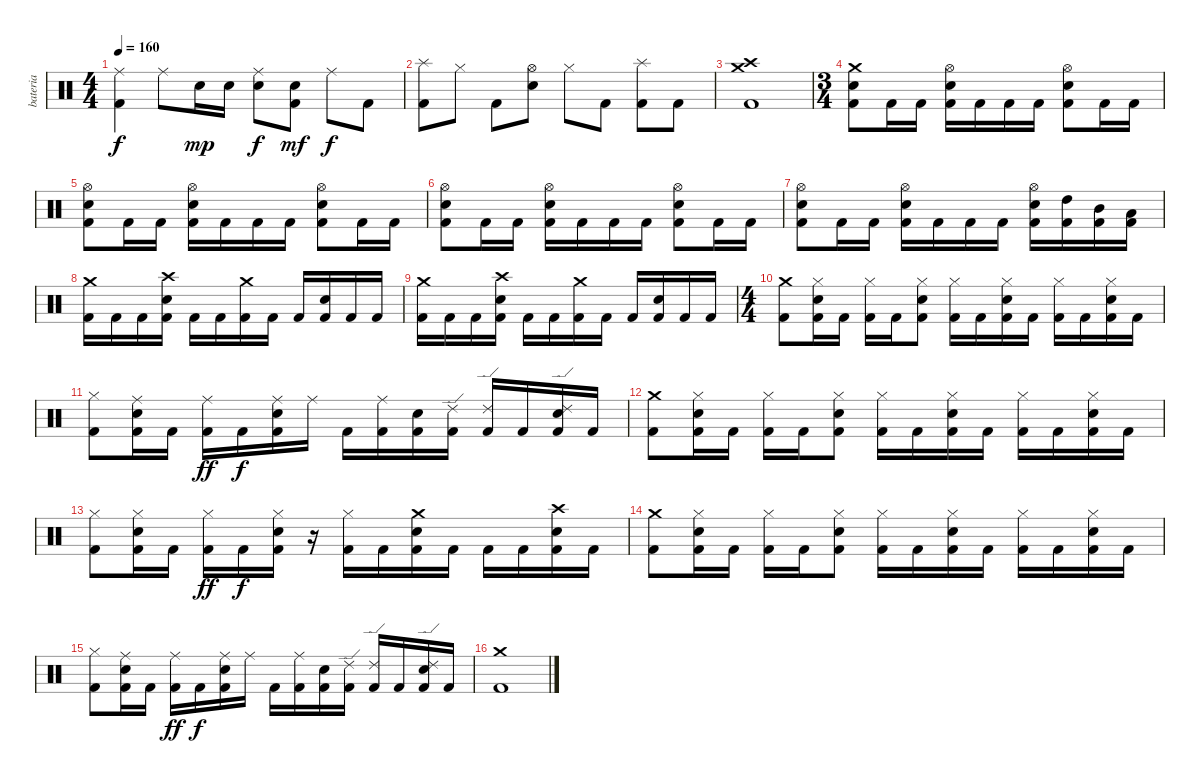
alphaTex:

\track ("bateria" "bateria") {instrument percussion}
\staff {score}
\articulation defaults
\ts (4 4)
\tempo 160
\clef neutral
\ks c
("Ride (middle)" "Kick (hit) 2").4{dy f} "Ride (middle)".8 "Electric Snare (hit)".16{dy mp} "Electric Snare (hit)".16 ("Ride (middle)" "Electric Snare (hit)").8{dy f} ("Electric Snare (hit)" "Kick (hit) 2").8{dy mf} "Ride (middle)".8{dy f} "Kick (hit) 2".8 |
("Splash (hit)" "Kick (hit) 2").8 "Hi-Hat (closed)".8 "Kick (hit) 2".8 ("Hi-Hat (open)" "Electric Snare (hit)").8 "Hi-Hat (closed)".8 "Kick (hit) 2".8 ("Splash (hit)" "Kick (hit) 2").8 "Kick (hit) 2".8 |
("Crash medium (hit)" "Crash high (hit)" "Kick (hit) 2").1 |
\ts (3 4)
("Crash medium (hit)" "Electric Snare (hit)" "Kick (hit) 2").8 "Kick (hit) 2".16 "Kick (hit) 2".16 ("Hi-Hat (open)" "Electric Snare (hit)" "Kick (hit) 2").16 "Kick (hit) 2".16 "Kick (hit) 2".16 "Kick (hit) 2".16 ("Hi-Hat (open)" "Electric Snare (hit)" "Kick (hit) 2").8 "Kick (hit) 2".16 "Kick (hit) 2".16 |
("Hi-Hat (open)" "Electric Snare (hit)" "Kick (hit) 2").8 "Kick (hit) 2".16 "Kick (hit) 2".16 ("Hi-Hat (open)" "Electric Snare (hit)" "Kick (hit) 2").16 "Kick (hit) 2".16 "Kick (hit) 2".16 "Kick (hit) 2".16 ("Hi-Hat (open)" "Electric Snare (hit)" "Kick (hit) 2").8 "Kick (hit) 2".16 "Kick (hit) 2".16 |
("Hi-Hat (open)" "Electric Snare (hit)" "Kick (hit) 2").8 "Kick (hit) 2".16 "Kick (hit) 2".16 ("Hi-Hat (open)" "Electric Snare (hit)" "Kick (hit) 2").16 "Kick (hit) 2".16 "Kick (hit) 2".16 "Kick (hit) 2".16 ("Hi-Hat (open)" "Electric Snare (hit)" "Kick (hit) 2").8 "Kick (hit) 2".16 "Kick (hit) 2".16 |
("Hi-Hat (open)" "Electric Snare (hit)" "Kick (hit) 2").8 "Kick (hit) 2".16 "Kick (hit) 2".16 ("Hi-Hat (open)" "Electric Snare (hit)" "Kick (hit) 2").16 "Kick (hit) 2".16 "Kick (hit) 2".16 "Kick (hit) 2".16 ("Hi-Hat (open)" "Electric Snare (hit)" "Kick (hit) 2").16 ("High Tom (hit)" "Kick (hit) 2").16 ("Mid Tom (hit)" "Kick (hit) 2").16 ("Low Tom (hit)" "Kick (hit) 2").16 |
("Crash medium (hit)" "Kick (hit) 2").16 "Kick (hit) 2".16 "Kick (hit) 2".16 ("Crash high (hit)" "Electric Snare (hit)" "Kick (hit) 2").16 "Kick (hit) 2".16 "Kick (hit) 2".16 ("Crash medium (hit)" "Kick (hit) 2").16 "Kick (hit) 2".16 "Kick (hit) 2".16 ("Electric Snare (hit)" "Kick (hit) 2").16 "Kick (hit) 2".16 "Kick (hit) 2".16 |
("Crash medium (hit)" "Kick (hit) 2").16 "Kick (hit) 2".16 "Kick (hit) 2".16 ("Crash high (hit)" "Electric Snare (hit)" "Kick (hit) 2").16 "Kick (hit) 2".16 "Kick (hit) 2".16 ("Crash medium (hit)" "Kick (hit) 2").16 "Kick (hit) 2".16 "Kick (hit) 2".16 ("Electric Snare (hit)" "Kick (hit) 2").16 "Kick (hit) 2".16 "Kick (hit) 2".16 |
\ts (4 4)
("Crash medium (hit)" "Kick (hit) 2").8 ("Hi-Hat (closed)" "Electric Snare (hit)" "Kick (hit) 2").16 "Kick (hit) 2".16 ("Hi-Hat (closed)" "Kick (hit) 2").16 "Kick (hit) 2".16 ("Hi-Hat (closed)" "Electric Snare (hit)" "Kick (hit) 2").8 ("Hi-Hat (closed)" "Kick (hit) 2").16 "Kick (hit) 2".16 ("Hi-Hat (closed)" "Electric Snare (hit)" "Kick (hit) 2").16 "Kick (hit) 2".16 ("Hi-Hat (closed)" "Kick (hit) 2").16 "Kick (hit) 2".16 ("Hi-Hat (closed)" "Electric Snare (hit)" "Kick (hit) 2").16 "Kick (hit) 2".16 |
("Hi-Hat (closed)" "Kick (hit) 2").8 ("Ride (middle)" "Electric Snare (hit)" "Kick (hit) 2").16 "Kick (hit) 2".16 ("Ride (middle)" "Kick (hit) 2").16{dy ff} "Kick (hit) 2".16{dy f} ("Ride (middle)" "Electric Snare (hit)" "Kick (hit) 2").16 "Ride (middle)".16 "Kick (hit) 2".16 ("Ride (middle)" "Kick (hit) 2").16 ("Electric Snare (hit)" "Kick (hit) 2").16 ("Ride (edge) 2" "Kick (hit) 2").16 ("Ride (edge) 2" "Kick (hit) 2").16 "Kick (hit) 2".16 ("Ride (edge) 2" "Electric Snare (hit)" "Kick (hit) 2").16 "Kick (hit) 2".16 |
("Crash medium (hit)" "Kick (hit) 2").8 ("Hi-Hat (closed)" "Electric Snare (hit)" "Kick (hit) 2").16 "Kick (hit) 2".16 ("Hi-Hat (closed)" "Kick (hit) 2").16 "Kick (hit) 2".16 ("Hi-Hat (closed)" "Electric Snare (hit)" "Kick (hit) 2").8 ("Hi-Hat (closed)" "Kick (hit) 2").16 "Kick (hit) 2".16 ("Hi-Hat (closed)" "Electric Snare (hit)" "Kick (hit) 2").16 "Kick (hit) 2".16 ("Hi-Hat (closed)" "Kick (hit) 2").16 "Kick (hit) 2".16 ("Hi-Hat (closed)" "Electric Snare (hit)" "Kick (hit) 2").16 "Kick (hit) 2".16 |
("Hi-Hat (closed)" "Kick (hit) 2").8 ("Hi-Hat (closed)" "Electric Snare (hit)" "Kick (hit) 2").16 "Kick (hit) 2".16 ("Hi-Hat (closed)" "Kick (hit) 2").16{dy ff} "Kick (hit) 2".16{dy f} ("Hi-Hat (closed)" "Electric Snare (hit)" "Kick (hit) 2").16 r.16 ("Hi-Hat (closed)" "Kick (hit) 2").16 "Kick (hit) 2".16 ("Crash medium (hit)" "Electric Snare (hit)" "Kick (hit) 2").16 "Kick (hit) 2".16 "Kick (hit) 2".16 "Kick (hit) 2".16 ("Crash high (hit)" "Electric Snare (hit)" "Kick (hit) 2").16 "Kick (hit) 2".16 |
("Crash medium (hit)" "Kick (hit) 2").8 ("Hi-Hat (closed)" "Electric Snare (hit)" "Kick (hit) 2").16 "Kick (hit) 2".16 ("Hi-Hat (closed)" "Kick (hit) 2").16 "Kick (hit) 2".16 ("Hi-Hat (closed)" "Electric Snare (hit)" "Kick (hit) 2").8 ("Hi-Hat (closed)" "Kick (hit) 2").16 "Kick (hit) 2".16 ("Hi-Hat (closed)" "Electric Snare (hit)" "Kick (hit) 2").16 "Kick (hit) 2".16 ("Hi-Hat (closed)" "Kick (hit) 2").16 "Kick (hit) 2".16 ("Hi-Hat (closed)" "Electric Snare (hit)" "Kick (hit) 2").16 "Kick (hit) 2".16 |
("Hi-Hat (closed)" "Kick (hit) 2").8 ("Ride (middle)" "Electric Snare (hit)" "Kick (hit) 2").16 "Kick (hit) 2".16 ("Ride (middle)" "Kick (hit) 2").16{dy ff} "Kick (hit) 2".16{dy f} ("Ride (middle)" "Electric Snare (hit)" "Kick (hit) 2").16 "Ride (middle)".16 "Kick (hit) 2".16 ("Ride (middle)" "Kick (hit) 2").16 ("Electric Snare (hit)" "Kick (hit) 2").16 ("Ride (edge) 2" "Kick (hit) 2").16 ("Ride (edge) 2" "Kick (hit) 2").16 "Kick (hit) 2".16 ("Ride (edge) 2" "Electric Snare (hit)" "Kick (hit) 2").16 "Kick (hit) 2".16 |
("Crash medium (hit)" "Kick (hit) 2").1
